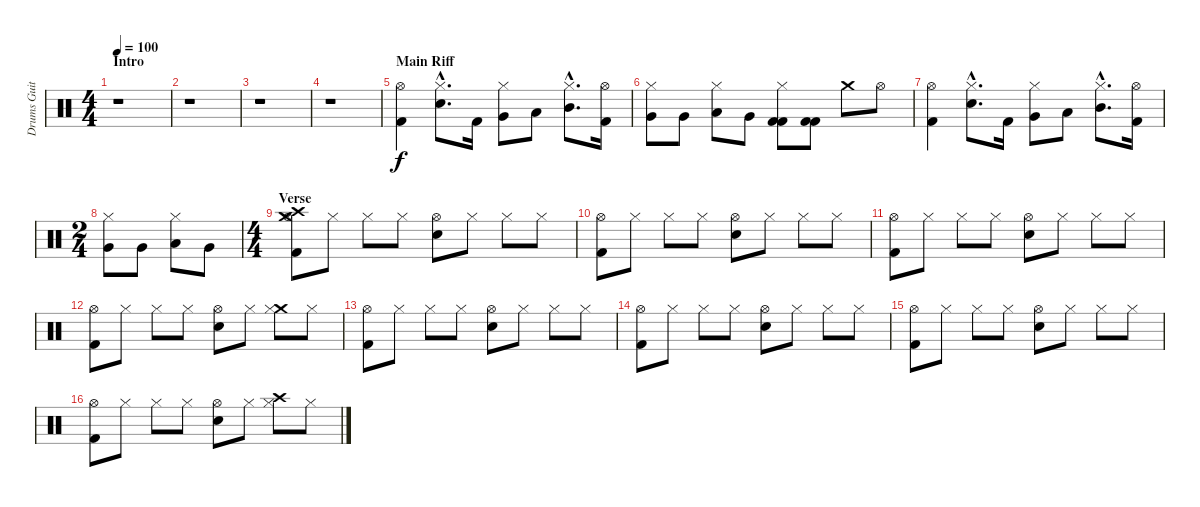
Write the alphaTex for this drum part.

\track ("Drums Guitar" "Drums Guit") {instrument percussion}
\staff {score}
\articulation defaults
\ts (4 4)
\section ("" "Intro")
\tempo 100
\clef neutral
\ks c
r.1{dy f} |
r.1 |
r.1 |
r.1 |
\section ("" "Main Riff")
("Hi-Hat (open)" "Kick (hit) 2").4 ("Hi-Hat (closed)"{hac} "Snare (hit) 2"{hac}).8{d} "Kick (hit) 2".16 ("Hi-Hat (closed)" "Very Low Tom (hit)").8 "Low Tom (hit)".8 ("Hi-Hat (closed)"{hac} "Mid Tom (hit)"{hac}).8{d} ("Hi-Hat (open)" "Kick (hit) 2").16 |
("Hi-Hat (closed)" "Very Low Tom (hit)").8 "Very Low Tom (hit)".8 ("Hi-Hat (closed)" "Low Tom (hit)").8 "Very Low Tom (hit)".8 ("Hi-Hat (closed)" "Kick (hit) 2" "Kick (hit) 2").8 ("Kick (hit) 2" "Kick (hit) 2").8 "Crash medium (hit)".8 "Hi-Hat (open)".8 |
("Hi-Hat (open)" "Kick (hit) 2").4 ("Hi-Hat (closed)"{hac} "Snare (hit) 2"{hac}).8{d} "Kick (hit) 2".16 ("Hi-Hat (closed)" "Very Low Tom (hit)").8 "Low Tom (hit)".8 ("Hi-Hat (closed)"{hac} "Mid Tom (hit)"{hac}).8{d} ("Hi-Hat (open)" "Kick (hit) 2").16 |
\ts (2 4)
("Hi-Hat (closed)" "Very Low Tom (hit)").8 "Very Low Tom (hit)".8 ("Hi-Hat (closed)" "Low Tom (hit)").8 "Very Low Tom (hit)".8 |
\ts (4 4)
\section ("" "Verse")
("Crash high (hit)" "Crash medium (hit)" "Hi-Hat (open)" "Kick (hit) 2").8 "Hi-Hat (closed)".8 "Hi-Hat (closed)".8 "Hi-Hat (closed)".8 ("Hi-Hat (open)" "Snare (hit) 2").8 "Hi-Hat (closed)".8 "Hi-Hat (closed)".8 "Hi-Hat (closed)".8 |
("Hi-Hat (open)" "Kick (hit) 2").8 "Hi-Hat (closed)".8 "Hi-Hat (closed)".8 "Hi-Hat (closed)".8 ("Hi-Hat (open)" "Snare (hit) 2").8 "Hi-Hat (closed)".8 "Hi-Hat (closed)".8 "Hi-Hat (closed)".8 |
("Hi-Hat (open)" "Kick (hit) 2").8 "Hi-Hat (closed)".8 "Hi-Hat (closed)".8 "Hi-Hat (closed)".8 ("Hi-Hat (open)" "Snare (hit) 2").8 "Hi-Hat (closed)".8 "Hi-Hat (closed)".8 "Hi-Hat (closed)".8 |
("Hi-Hat (open)" "Kick (hit) 2").8 "Hi-Hat (closed)".8 "Hi-Hat (closed)".8 "Hi-Hat (closed)".8 ("Hi-Hat (open)" "Snare (hit) 2").8 "Hi-Hat (closed)".8 ("Crash medium (hit)" "Hi-Hat (closed)").8 "Hi-Hat (closed)".8 |
("Hi-Hat (open)" "Kick (hit) 2").8 "Hi-Hat (closed)".8 "Hi-Hat (closed)".8 "Hi-Hat (closed)".8 ("Hi-Hat (open)" "Snare (hit) 2").8 "Hi-Hat (closed)".8 "Hi-Hat (closed)".8 "Hi-Hat (closed)".8 |
("Hi-Hat (open)" "Kick (hit) 2").8 "Hi-Hat (closed)".8 "Hi-Hat (closed)".8 "Hi-Hat (closed)".8 ("Hi-Hat (open)" "Snare (hit) 2").8 "Hi-Hat (closed)".8 "Hi-Hat (closed)".8 "Hi-Hat (closed)".8 |
("Hi-Hat (open)" "Kick (hit) 2").8 "Hi-Hat (closed)".8 "Hi-Hat (closed)".8 "Hi-Hat (closed)".8 ("Hi-Hat (open)" "Snare (hit) 2").8 "Hi-Hat (closed)".8 "Hi-Hat (closed)".8 "Hi-Hat (closed)".8 |
("Hi-Hat (open)" "Kick (hit) 2").8 "Hi-Hat (closed)".8 "Hi-Hat (closed)".8 "Hi-Hat (closed)".8 ("Hi-Hat (open)" "Snare (hit) 2").8 "Hi-Hat (closed)".8 ("Crash high (hit)" "Hi-Hat (closed)").8 "Hi-Hat (closed)".8
